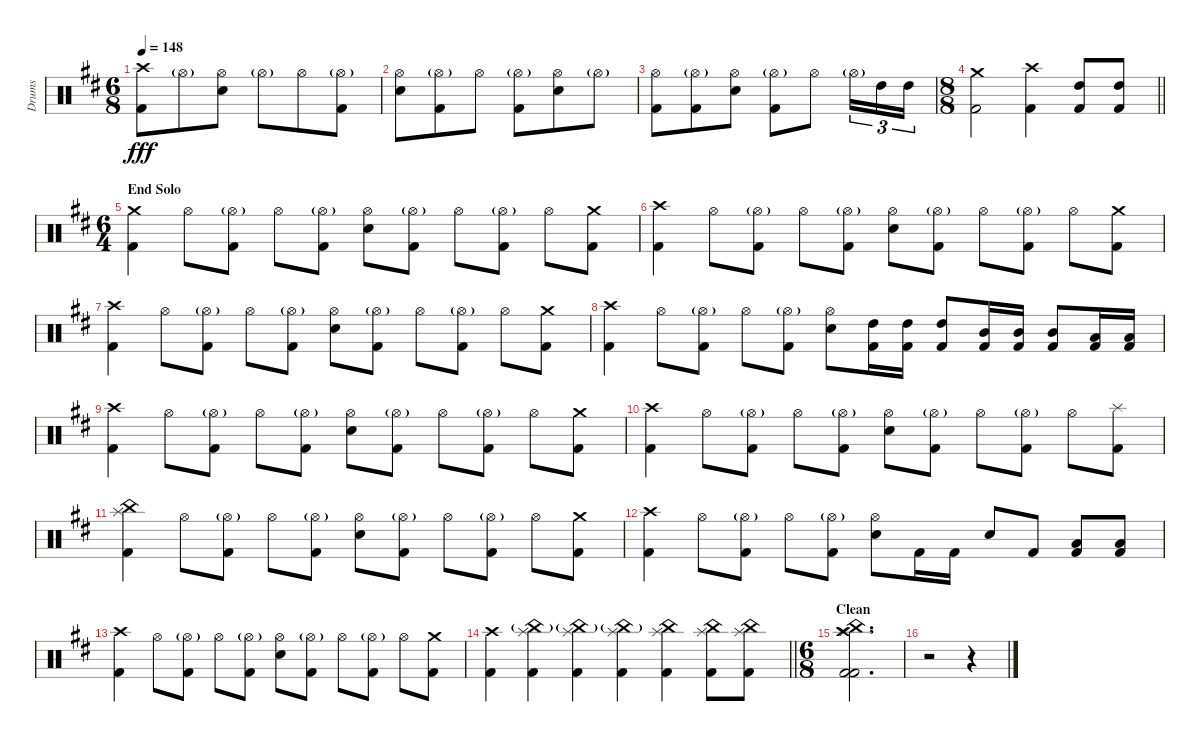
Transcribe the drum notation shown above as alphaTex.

\track ("Drums" "Drums") {instrument percussion}
\staff {score}
\articulation defaults
\ts (6 8)
\tempo 148
\clef neutral
\ks d
("Crash high (hit)" "Kick (hit) 2").8{dy fff} "Hi-Hat (open)"{g}.8 ("Hi-Hat (open)" "Electric Snare (hit)").8 "Hi-Hat (open)"{g}.8 "Hi-Hat (open)".8 ("Hi-Hat (open)"{g} "Kick (hit) 2").8 |
("Hi-Hat (open)" "Electric Snare (hit)").8 ("Hi-Hat (open)"{g} "Kick (hit) 2").8 "Hi-Hat (open)".8 ("Hi-Hat (open)"{g} "Kick (hit) 2").8 ("Hi-Hat (open)" "Electric Snare (hit)").8 "Hi-Hat (open)"{g}.8 |
("Hi-Hat (open)" "Kick (hit) 2").8 ("Hi-Hat (open)"{g} "Kick (hit) 2").8 ("Hi-Hat (open)" "Electric Snare (hit)").8 ("Hi-Hat (open)"{g} "Kick (hit) 2").8 "Hi-Hat (open)".8 "Hi-Hat (open)"{g}.16{tu (3 2)} "High Tom (hit)".16{tu (3 2)} "High Tom (hit)".16{tu (3 2)} |
\ts (8 8)
\barLineRight lightlight
("Crash medium (hit)" "Kick (hit) 2").2 ("Crash high (hit)" "Kick (hit) 2").4 ("High Tom (hit)" "Kick (hit) 2").8 ("High Tom (hit)" "Kick (hit) 2").8 |
\ts (6 4)
\section ("" "End Solo")
("Crash medium (hit)" "Kick (hit) 2").4 "Hi-Hat (open)".8 ("Hi-Hat (open)"{g} "Kick (hit) 2").8 "Hi-Hat (open)".8 ("Hi-Hat (open)"{g} "Kick (hit) 2").8 ("Hi-Hat (open)" "Electric Snare (hit)").8 ("Hi-Hat (open)"{g} "Kick (hit) 2").8 "Hi-Hat (open)".8 ("Hi-Hat (open)"{g} "Kick (hit) 2").8 "Hi-Hat (open)".8 ("Crash medium (hit)" "Kick (hit) 2").8 |
("Crash high (hit)" "Kick (hit) 2").4 "Hi-Hat (open)".8 ("Hi-Hat (open)"{g} "Kick (hit) 2").8 "Hi-Hat (open)".8 ("Hi-Hat (open)"{g} "Kick (hit) 2").8 ("Hi-Hat (open)" "Electric Snare (hit)").8 ("Hi-Hat (open)"{g} "Kick (hit) 2").8 "Hi-Hat (open)".8 ("Hi-Hat (open)"{g} "Kick (hit) 2").8 "Hi-Hat (open)".8 ("Crash medium (hit)" "Kick (hit) 2").8 |
("Crash high (hit)" "Kick (hit) 2").4 "Hi-Hat (open)".8 ("Hi-Hat (open)"{g} "Kick (hit) 2").8 "Hi-Hat (open)".8 ("Hi-Hat (open)"{g} "Kick (hit) 2").8 ("Hi-Hat (open)" "Electric Snare (hit)").8 ("Hi-Hat (open)"{g} "Kick (hit) 2").8 "Hi-Hat (open)".8 ("Hi-Hat (open)"{g} "Kick (hit) 2").8 "Hi-Hat (open)".8 ("Crash medium (hit)" "Kick (hit) 2").8 |
("Crash high (hit)" "Kick (hit) 2").4 "Hi-Hat (open)".8 ("Hi-Hat (open)"{g} "Kick (hit) 2").8 "Hi-Hat (open)".8 ("Hi-Hat (open)"{g} "Kick (hit) 2").8 ("Hi-Hat (open)" "Electric Snare (hit)").8 ("High Tom (hit)" "Kick (hit) 2").16 ("High Tom (hit)" "Kick (hit) 2").16 ("High Tom (hit)" "Kick (hit) 2").8 ("Mid Tom (hit)" "Kick (hit) 2").16 ("Mid Tom (hit)" "Kick (hit) 2").16 ("Mid Tom (hit)" "Kick (hit) 2").8 ("Low Tom (hit)" "Kick (hit) 2").16 ("Low Tom (hit)" "Kick (hit) 2").16 |
("Crash high (hit)" "Kick (hit) 2").4 "Hi-Hat (open)".8 ("Hi-Hat (open)"{g} "Kick (hit) 2").8 "Hi-Hat (open)".8 ("Hi-Hat (open)"{g} "Kick (hit) 2").8 ("Hi-Hat (open)" "Electric Snare (hit)").8 ("Hi-Hat (open)"{g} "Kick (hit) 2").8 "Hi-Hat (open)".8 ("Hi-Hat (open)"{g} "Kick (hit) 2").8 "Hi-Hat (open)".8 ("Crash medium (hit)" "Kick (hit) 2").8 |
("Crash high (hit)" "Kick (hit) 2").4 "Hi-Hat (open)".8 ("Hi-Hat (open)"{g} "Kick (hit) 2").8 "Hi-Hat (open)".8 ("Hi-Hat (open)"{g} "Kick (hit) 2").8 ("Hi-Hat (open)" "Electric Snare (hit)").8 ("Hi-Hat (open)"{g} "Kick (hit) 2").8 "Hi-Hat (open)".8 ("Hi-Hat (open)"{g} "Kick (hit) 2").8 "Hi-Hat (open)".8 ("Splash (hit)" "Kick (hit) 2").8 |
("China (hit)" "Splash (hit)" "Kick (hit) 2").4 "Hi-Hat (open)".8 ("Hi-Hat (open)"{g} "Kick (hit) 2").8 "Hi-Hat (open)".8 ("Hi-Hat (open)"{g} "Kick (hit) 2").8 ("Hi-Hat (open)" "Electric Snare (hit)").8 ("Hi-Hat (open)"{g} "Kick (hit) 2").8 "Hi-Hat (open)".8 ("Hi-Hat (open)"{g} "Kick (hit) 2").8 "Hi-Hat (open)".8 ("Crash medium (hit)" "Kick (hit) 2").8 |
("Crash high (hit)" "Kick (hit) 2").4 "Hi-Hat (open)".8 ("Hi-Hat (open)"{g} "Kick (hit) 2").8 "Hi-Hat (open)".8 ("Hi-Hat (open)"{g} "Kick (hit) 2").8 ("Hi-Hat (open)" "Electric Snare (hit)").8 "Kick (hit) 2".16 "Kick (hit) 2".16 "Electric Snare (hit)".8 "Kick (hit) 2".8 ("Low Tom (hit)" "Kick (hit) 2").8 ("Low Tom (hit)" "Kick (hit) 2").8 |
("Crash high (hit)" "Kick (hit) 2").4 "Hi-Hat (open)".8 ("Hi-Hat (open)"{g} "Kick (hit) 2").8 "Hi-Hat (open)".8 ("Hi-Hat (open)"{g} "Kick (hit) 2").8 ("Hi-Hat (open)" "Electric Snare (hit)").8 ("Hi-Hat (open)"{g} "Kick (hit) 2").8 "Hi-Hat (open)".8 ("Hi-Hat (open)"{g} "Kick (hit) 2").8 "Hi-Hat (open)".8 ("Crash medium (hit)" "Kick (hit) 2").8 |
\barLineRight lightlight
("Crash high (hit)" "Kick (hit) 2").4 ("China (hit)"{g} "Splash (hit)" "Kick (hit) 2").4 ("China (hit)"{g} "Splash (hit)" "Kick (hit) 2").4 ("China (hit)"{g} "Splash (hit)" "Kick (hit) 2").4 ("China (hit)" "Splash (hit)" "Kick (hit) 2").4 ("China (hit)" "Splash (hit)" "Kick (hit) 2").8 ("China (hit)" "Splash (hit)" "Kick (hit) 2").8 |
\ts (6 8)
\section ("" "Clean")
("China (hit)" "Splash (hit)" "Crash high (hit)" "Kick (hit) 2" "Kick (hit) 2").2{d} |
r.2 r.4
